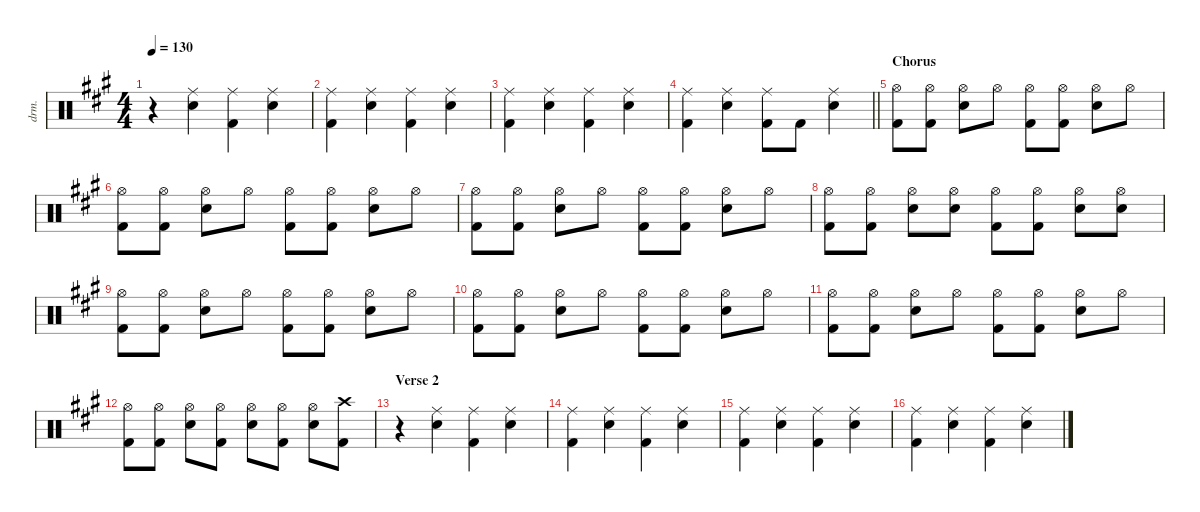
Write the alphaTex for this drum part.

\defaultSystemsLayout 4
\hideDynamics
\bracketExtendMode nobrackets
\track ("Drums" "drm.") {instrument percussion}
\staff {score}
\articulation defaults
\ts (4 4)
\tempo 130
\clef neutral
\ks a
r.4{dy f beam Down} ("Ride (middle)"{acc forcenatural} "Snare (hit) 2"{acc forcenatural}).4{beam Down} ("Ride (middle)"{acc forcenatural} "Kick (hit) 2"{acc forcenatural}).4{beam Down} ("Ride (middle)"{acc forcenatural} "Snare (hit) 2"{acc forcenatural}).4{beam Down} |
("Ride (middle)"{acc forcenatural} "Kick (hit) 2"{acc forcenatural}).4{beam Down} ("Ride (middle)"{acc forcenatural} "Snare (hit) 2"{acc forcenatural}).4{beam Down} ("Ride (middle)"{acc forcenatural} "Kick (hit) 2"{acc forcenatural}).4{beam Down} ("Ride (middle)"{acc forcenatural} "Snare (hit) 2"{acc forcenatural}).4{beam Down} |
("Ride (middle)"{acc forcenatural} "Kick (hit) 2"{acc forcenatural}).4{beam Down} ("Ride (middle)"{acc forcenatural} "Snare (hit) 2"{acc forcenatural}).4{beam Down} ("Ride (middle)"{acc forcenatural} "Kick (hit) 2"{acc forcenatural}).4{beam Down} ("Ride (middle)"{acc forcenatural} "Snare (hit) 2"{acc forcenatural}).4{beam Down} |
\barLineRight lightlight
("Ride (middle)"{acc forcenatural} "Kick (hit) 2"{acc forcenatural}).4{beam Down} ("Ride (middle)"{acc forcenatural} "Snare (hit) 2"{acc forcenatural}).4{beam Down} ("Ride (middle)"{acc forcenatural} "Kick (hit) 2"{acc forcenatural}).8{beam Down} "Kick (hit) 2"{acc forcenatural}.8{beam Down} ("Ride (middle)"{acc forcenatural} "Snare (hit) 2"{acc forcenatural}).4{beam Down} |
\section ("" "Chorus")
("Hi-Hat (open)"{acc forcenatural} "Kick (hit) 2"{acc forcenatural}).8{beam Down} ("Hi-Hat (open)"{acc forcenatural} "Kick (hit) 2"{acc forcenatural}).8{beam Down} ("Hi-Hat (open)"{acc forcenatural} "Snare (hit) 2"{acc forcenatural}).8{beam Down} "Hi-Hat (open)"{acc forcenatural}.8{beam Down} ("Hi-Hat (open)"{acc forcenatural} "Kick (hit) 2"{acc forcenatural}).8{beam Down} ("Hi-Hat (open)"{acc forcenatural} "Kick (hit) 2"{acc forcenatural}).8{beam Down} ("Hi-Hat (open)"{acc forcenatural} "Snare (hit) 2"{acc forcenatural}).8{beam Down} "Hi-Hat (open)"{acc forcenatural}.8{beam Down} |
("Hi-Hat (open)"{acc forcenatural} "Kick (hit) 2"{acc forcenatural}).8{beam Down} ("Hi-Hat (open)"{acc forcenatural} "Kick (hit) 2"{acc forcenatural}).8{beam Down} ("Hi-Hat (open)"{acc forcenatural} "Snare (hit) 2"{acc forcenatural}).8{beam Down} "Hi-Hat (open)"{acc forcenatural}.8{beam Down} ("Hi-Hat (open)"{acc forcenatural} "Kick (hit) 2"{acc forcenatural}).8{beam Down} ("Hi-Hat (open)"{acc forcenatural} "Kick (hit) 2"{acc forcenatural}).8{beam Down} ("Hi-Hat (open)"{acc forcenatural} "Snare (hit) 2"{acc forcenatural}).8{beam Down} "Hi-Hat (open)"{acc forcenatural}.8{beam Down} |
("Hi-Hat (open)"{acc forcenatural} "Kick (hit) 2"{acc forcenatural}).8{beam Down} ("Hi-Hat (open)"{acc forcenatural} "Kick (hit) 2"{acc forcenatural}).8{beam Down} ("Hi-Hat (open)"{acc forcenatural} "Snare (hit) 2"{acc forcenatural}).8{beam Down} "Hi-Hat (open)"{acc forcenatural}.8{beam Down} ("Hi-Hat (open)"{acc forcenatural} "Kick (hit) 2"{acc forcenatural}).8{beam Down} ("Hi-Hat (open)"{acc forcenatural} "Kick (hit) 2"{acc forcenatural}).8{beam Down} ("Hi-Hat (open)"{acc forcenatural} "Snare (hit) 2"{acc forcenatural}).8{beam Down} "Hi-Hat (open)"{acc forcenatural}.8{beam Down} |
("Hi-Hat (open)"{acc forcenatural} "Kick (hit) 2"{acc forcenatural}).8{beam Down} ("Hi-Hat (open)"{acc forcenatural} "Kick (hit) 2"{acc forcenatural}).8{beam Down} ("Hi-Hat (open)"{acc forcenatural} "Snare (hit) 2"{acc forcenatural}).8{beam Down} ("Hi-Hat (open)"{acc forcenatural} "Snare (hit) 2"{acc forcenatural}).8{beam Down} ("Hi-Hat (open)"{acc forcenatural} "Kick (hit) 2"{acc forcenatural}).8{beam Down} ("Hi-Hat (open)"{acc forcenatural} "Kick (hit) 2"{acc forcenatural}).8{beam Down} ("Hi-Hat (open)"{acc forcenatural} "Snare (hit) 2"{acc forcenatural}).8{beam Down} ("Hi-Hat (open)"{acc forcenatural} "Snare (hit) 2"{acc forcenatural}).8{beam Down} |
("Hi-Hat (open)"{acc forcenatural} "Kick (hit) 2"{acc forcenatural}).8{beam Down} ("Hi-Hat (open)"{acc forcenatural} "Kick (hit) 2"{acc forcenatural}).8{beam Down} ("Hi-Hat (open)"{acc forcenatural} "Snare (hit) 2"{acc forcenatural}).8{beam Down} "Hi-Hat (open)"{acc forcenatural}.8{beam Down} ("Hi-Hat (open)"{acc forcenatural} "Kick (hit) 2"{acc forcenatural}).8{beam Down} ("Hi-Hat (open)"{acc forcenatural} "Kick (hit) 2"{acc forcenatural}).8{beam Down} ("Hi-Hat (open)"{acc forcenatural} "Snare (hit) 2"{acc forcenatural}).8{beam Down} "Hi-Hat (open)"{acc forcenatural}.8{beam Down} |
("Hi-Hat (open)"{acc forcenatural} "Kick (hit) 2"{acc forcenatural}).8{beam Down} ("Hi-Hat (open)"{acc forcenatural} "Kick (hit) 2"{acc forcenatural}).8{beam Down} ("Hi-Hat (open)"{acc forcenatural} "Snare (hit) 2"{acc forcenatural}).8{beam Down} "Hi-Hat (open)"{acc forcenatural}.8{beam Down} ("Hi-Hat (open)"{acc forcenatural} "Kick (hit) 2"{acc forcenatural}).8{beam Down} ("Hi-Hat (open)"{acc forcenatural} "Kick (hit) 2"{acc forcenatural}).8{beam Down} ("Hi-Hat (open)"{acc forcenatural} "Snare (hit) 2"{acc forcenatural}).8{beam Down} "Hi-Hat (open)"{acc forcenatural}.8{beam Down} |
("Hi-Hat (open)"{acc forcenatural} "Kick (hit) 2"{acc forcenatural}).8{beam Down} ("Hi-Hat (open)"{acc forcenatural} "Kick (hit) 2"{acc forcenatural}).8{beam Down} ("Hi-Hat (open)"{acc forcenatural} "Snare (hit) 2"{acc forcenatural}).8{beam Down} "Hi-Hat (open)"{acc forcenatural}.8{beam Down} ("Hi-Hat (open)"{acc forcenatural} "Kick (hit) 2"{acc forcenatural}).8{beam Down} ("Hi-Hat (open)"{acc forcenatural} "Kick (hit) 2"{acc forcenatural}).8{beam Down} ("Hi-Hat (open)"{acc forcenatural} "Snare (hit) 2"{acc forcenatural}).8{beam Down} "Hi-Hat (open)"{acc forcenatural}.8{beam Down} |
("Hi-Hat (open)"{acc forcenatural} "Kick (hit) 2"{acc forcenatural}).8{beam Down} ("Hi-Hat (open)"{acc forcenatural} "Kick (hit) 2"{acc forcenatural}).8{beam Down} ("Hi-Hat (open)"{acc forcenatural} "Snare (hit) 2"{acc forcenatural}).8{beam Down} ("Hi-Hat (open)"{acc forcenatural} "Kick (hit) 2"{acc forcenatural}).8{beam Down} ("Hi-Hat (open)"{acc forcenatural} "Snare (hit) 2"{acc forcenatural}).8{beam Down} ("Hi-Hat (open)"{acc forcenatural} "Kick (hit) 2"{acc forcenatural}).8{beam Down} ("Hi-Hat (open)"{acc forcenatural} "Snare (hit) 2"{acc forcenatural}).8{beam Down} ("Crash high (hit)"{acc forcenatural} "Kick (hit) 2"{acc forcenatural}).8{beam Down} |
\section ("" "Verse 2")
r.4{beam Down} ("Ride (middle)"{acc forcenatural} "Snare (hit) 2"{acc forcenatural}).4{beam Down} ("Ride (middle)"{acc forcenatural} "Kick (hit) 2"{acc forcenatural}).4{beam Down} ("Ride (middle)"{acc forcenatural} "Snare (hit) 2"{acc forcenatural}).4{beam Down} |
("Ride (middle)"{acc forcenatural} "Kick (hit) 2"{acc forcenatural}).4{beam Down} ("Ride (middle)"{acc forcenatural} "Snare (hit) 2"{acc forcenatural}).4{beam Down} ("Ride (middle)"{acc forcenatural} "Kick (hit) 2"{acc forcenatural}).4{beam Down} ("Ride (middle)"{acc forcenatural} "Snare (hit) 2"{acc forcenatural}).4{beam Down} |
("Ride (middle)"{acc forcenatural} "Kick (hit) 2"{acc forcenatural}).4{beam Down} ("Ride (middle)"{acc forcenatural} "Snare (hit) 2"{acc forcenatural}).4{beam Down} ("Ride (middle)"{acc forcenatural} "Kick (hit) 2"{acc forcenatural}).4{beam Down} ("Ride (middle)"{acc forcenatural} "Snare (hit) 2"{acc forcenatural}).4{beam Down} |
("Ride (middle)"{acc forcenatural} "Kick (hit) 2"{acc forcenatural}).4{beam Down} ("Ride (middle)"{acc forcenatural} "Snare (hit) 2"{acc forcenatural}).4{beam Down} ("Ride (middle)"{acc forcenatural} "Kick (hit) 2"{acc forcenatural}).4{beam Down} ("Ride (middle)"{acc forcenatural} "Snare (hit) 2"{acc forcenatural}).4{beam Down}
